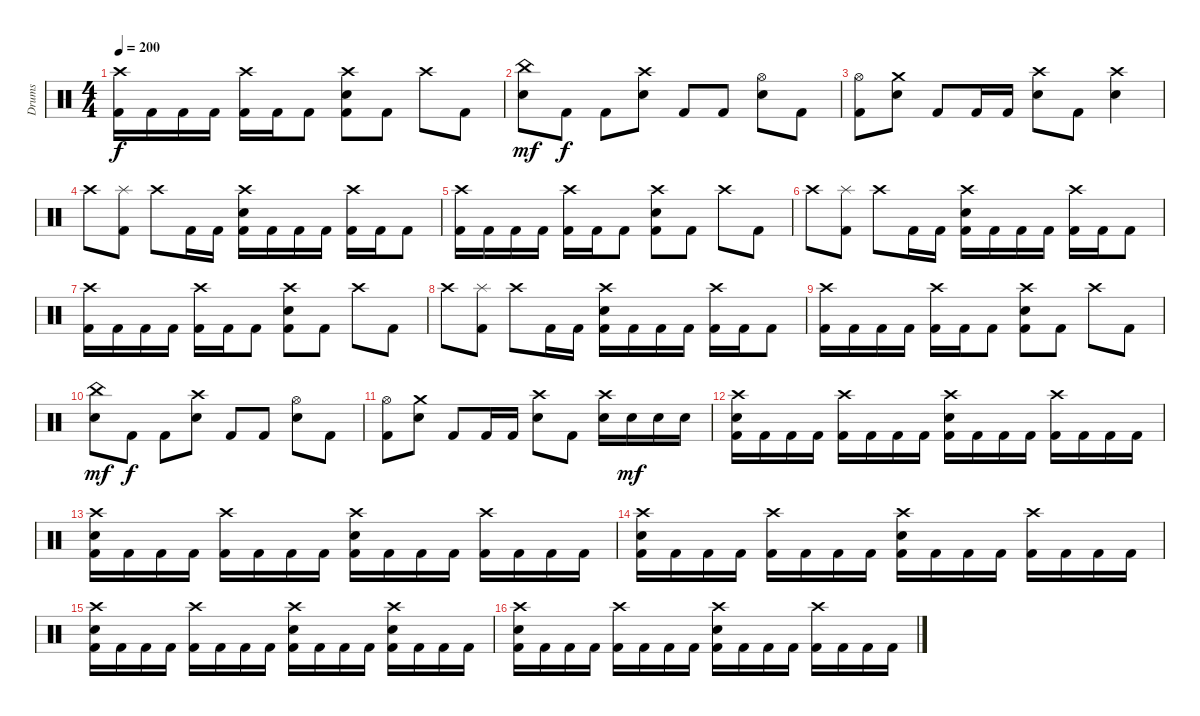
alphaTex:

\track ("Drums" "Drums") {instrument percussion}
\staff {score}
\articulation defaults
\ts (4 4)
\tempo 200
\clef neutral
\ks c
("Crash high (hit)" "Kick (hit) 2").16{dy f} "Kick (hit) 2".16 "Kick (hit) 2".16 "Kick (hit) 2".16 ("Crash high (hit)" "Kick (hit) 2").16 "Kick (hit) 2".16 "Kick (hit) 2".8 ("Crash high (hit)" "Electric Snare (hit)" "Kick (hit) 2").8 "Kick (hit) 2".8 "Crash high (hit)".8 "Kick (hit) 2".8 |
("China (hit)" "Electric Snare (hit)").8{dy mf} "Kick (hit) 2".8{dy f} "Kick (hit) 2".8 ("Crash high (hit)" "Electric Snare (hit)").8 "Kick (hit) 2".8 "Kick (hit) 2".8 ("Hi-Hat (open)" "Electric Snare (hit)").8 "Kick (hit) 2".8 |
("Hi-Hat (open)" "Kick (hit) 2").8 ("Crash medium (hit)" "Electric Snare (hit)").8 "Kick (hit) 2".8 "Kick (hit) 2".16 "Kick (hit) 2".16 ("Crash high (hit)" "Electric Snare (hit)").8 "Kick (hit) 2".8 ("Crash high (hit)" "Electric Snare (hit)").4 |
"Crash high (hit)".8 ("Splash (hit)" "Kick (hit) 2").8 "Crash high (hit)".8 "Kick (hit) 2".16 "Kick (hit) 2".16 ("Crash high (hit)" "Electric Snare (hit)" "Kick (hit) 2").16 "Kick (hit) 2".16 "Kick (hit) 2".16 "Kick (hit) 2".16 ("Crash high (hit)" "Kick (hit) 2").16 "Kick (hit) 2".16 "Kick (hit) 2".8 |
("Crash high (hit)" "Kick (hit) 2").16 "Kick (hit) 2".16 "Kick (hit) 2".16 "Kick (hit) 2".16 ("Crash high (hit)" "Kick (hit) 2").16 "Kick (hit) 2".16 "Kick (hit) 2".8 ("Crash high (hit)" "Electric Snare (hit)" "Kick (hit) 2").8 "Kick (hit) 2".8 "Crash high (hit)".8 "Kick (hit) 2".8 |
"Crash high (hit)".8 ("Splash (hit)" "Kick (hit) 2").8 "Crash high (hit)".8 "Kick (hit) 2".16 "Kick (hit) 2".16 ("Crash high (hit)" "Electric Snare (hit)" "Kick (hit) 2").16 "Kick (hit) 2".16 "Kick (hit) 2".16 "Kick (hit) 2".16 ("Crash high (hit)" "Kick (hit) 2").16 "Kick (hit) 2".16 "Kick (hit) 2".8 |
("Crash high (hit)" "Kick (hit) 2").16 "Kick (hit) 2".16 "Kick (hit) 2".16 "Kick (hit) 2".16 ("Crash high (hit)" "Kick (hit) 2").16 "Kick (hit) 2".16 "Kick (hit) 2".8 ("Crash high (hit)" "Electric Snare (hit)" "Kick (hit) 2").8 "Kick (hit) 2".8 "Crash high (hit)".8 "Kick (hit) 2".8 |
"Crash high (hit)".8 ("Splash (hit)" "Kick (hit) 2").8 "Crash high (hit)".8 "Kick (hit) 2".16 "Kick (hit) 2".16 ("Crash high (hit)" "Electric Snare (hit)" "Kick (hit) 2").16 "Kick (hit) 2".16 "Kick (hit) 2".16 "Kick (hit) 2".16 ("Crash high (hit)" "Kick (hit) 2").16 "Kick (hit) 2".16 "Kick (hit) 2".8 |
("Crash high (hit)" "Kick (hit) 2").16 "Kick (hit) 2".16 "Kick (hit) 2".16 "Kick (hit) 2".16 ("Crash high (hit)" "Kick (hit) 2").16 "Kick (hit) 2".16 "Kick (hit) 2".8 ("Crash high (hit)" "Electric Snare (hit)" "Kick (hit) 2").8 "Kick (hit) 2".8 "Crash high (hit)".8 "Kick (hit) 2".8 |
("China (hit)" "Electric Snare (hit)").8{dy mf} "Kick (hit) 2".8{dy f} "Kick (hit) 2".8 ("Crash high (hit)" "Electric Snare (hit)").8 "Kick (hit) 2".8 "Kick (hit) 2".8 ("Hi-Hat (open)" "Electric Snare (hit)").8 "Kick (hit) 2".8 |
("Hi-Hat (open)" "Kick (hit) 2").8 ("Crash medium (hit)" "Electric Snare (hit)").8 "Kick (hit) 2".8 "Kick (hit) 2".16 "Kick (hit) 2".16 ("Crash high (hit)" "Electric Snare (hit)").8 "Kick (hit) 2".8 ("Crash high (hit)" "Electric Snare (hit)").16 "Electric Snare (hit)".16{dy mf} "Electric Snare (hit)".16 "Electric Snare (hit)".16 |
("Crash high (hit)" "Electric Snare (hit)" "Kick (hit) 2").16 "Kick (hit) 2".16 "Kick (hit) 2".16 "Kick (hit) 2".16 ("Crash high (hit)" "Kick (hit) 2").16 "Kick (hit) 2".16 "Kick (hit) 2".16 "Kick (hit) 2".16 ("Crash high (hit)" "Electric Snare (hit)" "Kick (hit) 2").16 "Kick (hit) 2".16 "Kick (hit) 2".16 "Kick (hit) 2".16 ("Crash high (hit)" "Kick (hit) 2").16 "Kick (hit) 2".16 "Kick (hit) 2".16 "Kick (hit) 2".16 |
("Crash high (hit)" "Electric Snare (hit)" "Kick (hit) 2").16 "Kick (hit) 2".16 "Kick (hit) 2".16 "Kick (hit) 2".16 ("Crash high (hit)" "Kick (hit) 2").16 "Kick (hit) 2".16 "Kick (hit) 2".16 "Kick (hit) 2".16 ("Crash high (hit)" "Electric Snare (hit)" "Kick (hit) 2").16 "Kick (hit) 2".16 "Kick (hit) 2".16 "Kick (hit) 2".16 ("Crash high (hit)" "Kick (hit) 2").16 "Kick (hit) 2".16 "Kick (hit) 2".16 "Kick (hit) 2".16 |
("Crash high (hit)" "Electric Snare (hit)" "Kick (hit) 2").16 "Kick (hit) 2".16 "Kick (hit) 2".16 "Kick (hit) 2".16 ("Crash high (hit)" "Kick (hit) 2").16 "Kick (hit) 2".16 "Kick (hit) 2".16 "Kick (hit) 2".16 ("Crash high (hit)" "Electric Snare (hit)" "Kick (hit) 2").16 "Kick (hit) 2".16 "Kick (hit) 2".16 "Kick (hit) 2".16 ("Crash high (hit)" "Kick (hit) 2").16 "Kick (hit) 2".16 "Kick (hit) 2".16 "Kick (hit) 2".16 |
("Crash high (hit)" "Electric Snare (hit)" "Kick (hit) 2").16 "Kick (hit) 2".16 "Kick (hit) 2".16 "Kick (hit) 2".16 ("Crash high (hit)" "Kick (hit) 2").16 "Kick (hit) 2".16 "Kick (hit) 2".16 "Kick (hit) 2".16 ("Crash high (hit)" "Electric Snare (hit)" "Kick (hit) 2").16 "Kick (hit) 2".16 "Kick (hit) 2".16 "Kick (hit) 2".16 ("Crash high (hit)" "Electric Snare (hit)" "Kick (hit) 2").16 "Kick (hit) 2".16 "Kick (hit) 2".16 "Kick (hit) 2".16 |
("Crash high (hit)" "Electric Snare (hit)" "Kick (hit) 2").16 "Kick (hit) 2".16 "Kick (hit) 2".16 "Kick (hit) 2".16 ("Crash high (hit)" "Kick (hit) 2").16 "Kick (hit) 2".16 "Kick (hit) 2".16 "Kick (hit) 2".16 ("Crash high (hit)" "Electric Snare (hit)" "Kick (hit) 2").16 "Kick (hit) 2".16 "Kick (hit) 2".16 "Kick (hit) 2".16 ("Crash high (hit)" "Kick (hit) 2").16 "Kick (hit) 2".16 "Kick (hit) 2".16 "Kick (hit) 2".16
